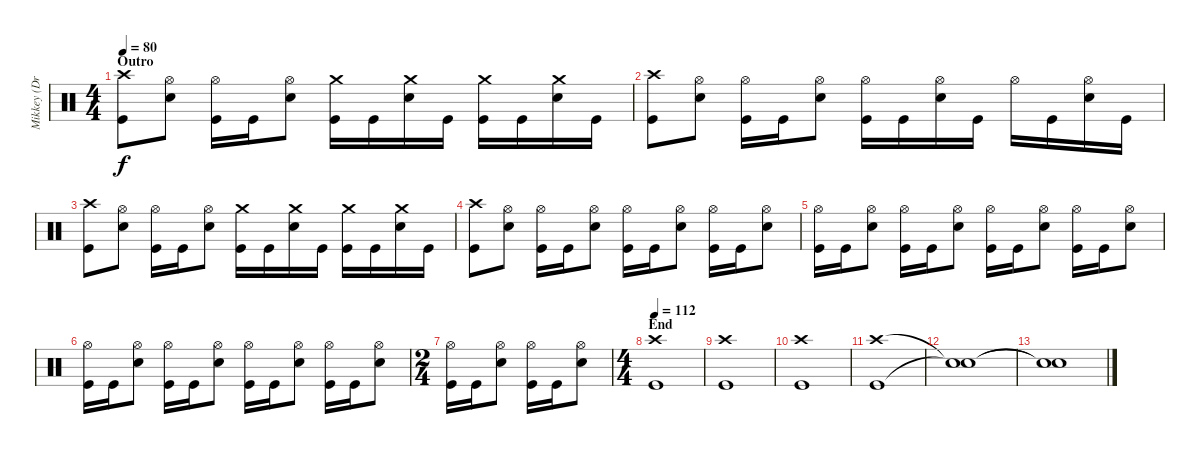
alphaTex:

\track ("Mikkey (Drums)" "Mikkey (Dr") {instrument percussion}
\staff {score}
\articulation defaults
\ts (4 4)
\section ("" "Outro")
\tempo 80
\clef neutral
\ks c
("Crash high (hit)" "Kick (hit)").8{dy f} ("Hi-Hat (open)" "Electric Snare (hit)").8 ("Hi-Hat (open)" "Kick (hit)").16 "Kick (hit)".16 ("Hi-Hat (open)" "Electric Snare (hit)").8 ("Crash medium (hit)" "Kick (hit)").16 "Kick (hit)".16 ("Crash medium (hit)" "Electric Snare (hit)").16 "Kick (hit)".16 ("Crash medium (hit)" "Kick (hit)").16 "Kick (hit)".16 ("Crash medium (hit)" "Electric Snare (hit)").16 "Kick (hit)".16 |
("Crash high (hit)" "Kick (hit)").8 ("Hi-Hat (open)" "Electric Snare (hit)").8 ("Hi-Hat (open)" "Kick (hit)").16 "Kick (hit)".16 ("Hi-Hat (open)" "Electric Snare (hit)").8 ("Hi-Hat (open)" "Kick (hit)").16 "Kick (hit)".16 ("Hi-Hat (open)" "Electric Snare (hit)").16 "Kick (hit)".16 "Hi-Hat (open)".16 "Kick (hit)".16 ("Hi-Hat (open)" "Electric Snare (hit)").16 "Kick (hit)".16 |
("Crash high (hit)" "Kick (hit)").8 ("Hi-Hat (open)" "Electric Snare (hit)").8 ("Hi-Hat (open)" "Kick (hit)").16 "Kick (hit)".16 ("Hi-Hat (open)" "Electric Snare (hit)").8 ("Crash medium (hit)" "Kick (hit)").16 "Kick (hit)".16 ("Crash medium (hit)" "Electric Snare (hit)").16 "Kick (hit)".16 ("Crash medium (hit)" "Kick (hit)").16 "Kick (hit)".16 ("Crash medium (hit)" "Electric Snare (hit)").16 "Kick (hit)".16 |
("Crash high (hit)" "Kick (hit)").8 ("Hi-Hat (open)" "Electric Snare (hit)").8 ("Hi-Hat (open)" "Kick (hit)").16 "Kick (hit)".16 ("Hi-Hat (open)" "Electric Snare (hit)").8 ("Hi-Hat (open)" "Kick (hit)").16 "Kick (hit)".16 ("Hi-Hat (open)" "Electric Snare (hit)").8 ("Hi-Hat (open)" "Kick (hit)").16 "Kick (hit)".16 ("Hi-Hat (open)" "Electric Snare (hit)").8 |
("Hi-Hat (open)" "Kick (hit)").16 "Kick (hit)".16 ("Hi-Hat (open)" "Electric Snare (hit)").8 ("Hi-Hat (open)" "Kick (hit)").16 "Kick (hit)".16 ("Hi-Hat (open)" "Electric Snare (hit)").8 ("Hi-Hat (open)" "Kick (hit)").16 "Kick (hit)".16 ("Hi-Hat (open)" "Electric Snare (hit)").8 ("Hi-Hat (open)" "Kick (hit)").16 "Kick (hit)".16 ("Hi-Hat (open)" "Electric Snare (hit)").8 |
("Hi-Hat (open)" "Kick (hit)").16 "Kick (hit)".16 ("Hi-Hat (open)" "Electric Snare (hit)").8 ("Hi-Hat (open)" "Kick (hit)").16 "Kick (hit)".16 ("Hi-Hat (open)" "Electric Snare (hit)").8 ("Hi-Hat (open)" "Kick (hit)").16 "Kick (hit)".16 ("Hi-Hat (open)" "Electric Snare (hit)").8 ("Hi-Hat (open)" "Kick (hit)").16 "Kick (hit)".16 ("Hi-Hat (open)" "Electric Snare (hit)").8 |
\ts (2 4)
("Hi-Hat (open)" "Kick (hit)").16 "Kick (hit)".16 ("Hi-Hat (open)" "Electric Snare (hit)").8 ("Hi-Hat (open)" "Kick (hit)").16 "Kick (hit)".16 ("Hi-Hat (open)" "Electric Snare (hit)").8 |
\ts (4 4)
\section ("" "End")
\tempo 112
("Crash high (hit)" "Kick (hit)").1 |
("Crash high (hit)" "Kick (hit)").1 |
("Crash high (hit)" "Kick (hit)").1 |
("Crash high (hit)" "Kick (hit)").1 |
("Snare (hit)"{t} "Snare (hit)"{t}).1 |
("Snare (hit)"{t} "Snare (hit)"{t}).1
